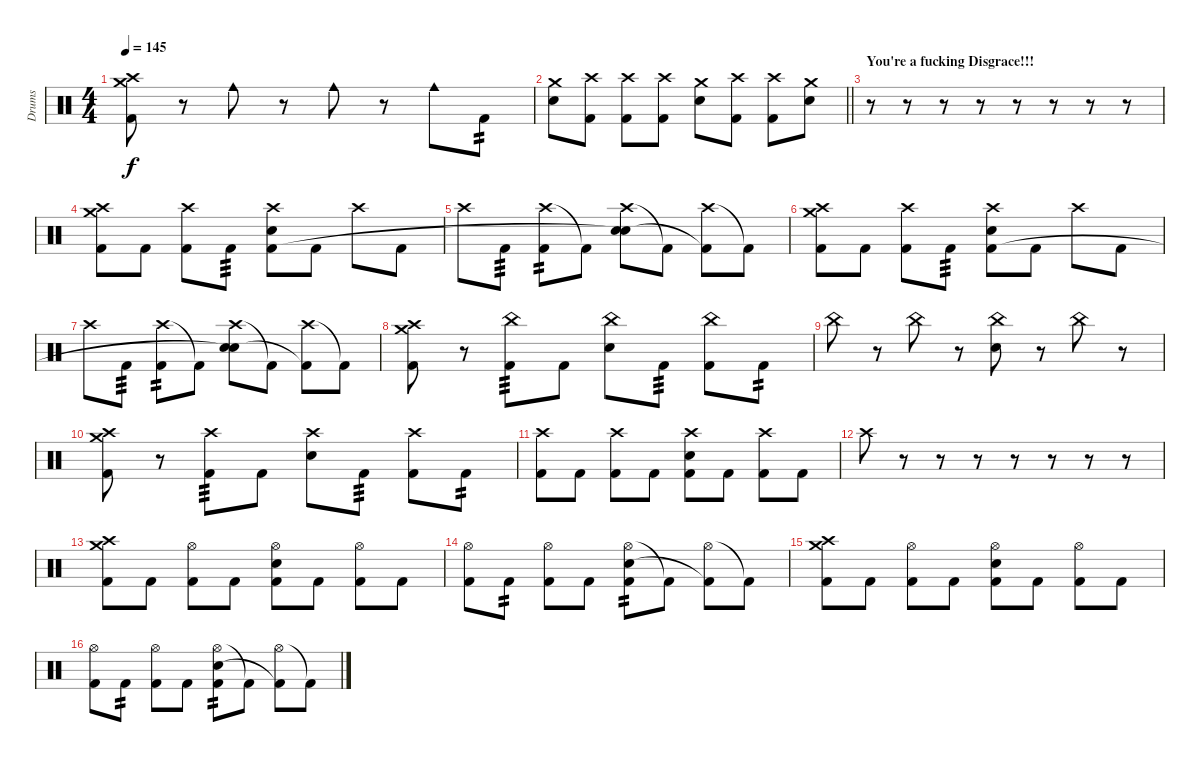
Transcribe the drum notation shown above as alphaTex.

\track ("Drums" "Drums") {instrument percussion}
\staff {score}
\articulation defaults
\ts (4 4)
\tempo 145
\clef neutral
\ks c
("Crash medium (hit)" "Crash high (hit)" "Kick (hit) 2").8{dy f} r.8 "Cowbell medium (hit)".8 r.8 "Cowbell medium (hit)".8 r.8 "Cowbell medium (hit)".8 "Kick (hit) 2".8{tp 2} |
\barLineRight lightlight
("Crash medium (hit)" "Electric Snare (hit)").8 ("Crash high (hit)" "Kick (hit) 2").8 ("Crash high (hit)" "Kick (hit) 2").8 ("Crash high (hit)" "Kick (hit) 2").8 ("Crash medium (hit)" "Electric Snare (hit)").8 ("Crash high (hit)" "Kick (hit) 2").8 ("Crash high (hit)" "Kick (hit) 2").8 ("Crash medium (hit)" "Electric Snare (hit)").8 |
\section ("" "You're a fucking Disgrace!!!")
r.8{volume 0} r.8 r.8 r.8 r.8 r.8 r.8 r.8 |
("Crash medium (hit)" "Crash high (hit)" "Kick (hit) 2").8{volume 13} "Kick (hit) 2".8 ("Crash high (hit)" "Kick (hit) 2").8 "Kick (hit) 2".8{tp 3} ("Crash high (hit)" "Electric Snare (hit)" "Kick (hit) 2").8 "Kick (hit) 2".8 "Crash high (hit)".8 "Kick (hit) 2".8 |
"Crash high (hit)".8 "Kick (hit) 2".8{tp 3} ("Crash high (hit)" "Kick (hit) 2").8{tp 2} "Kick (hit) 2"{t}.8 ("Crash high (hit)" "Electric Snare (hit)" "Snare (hit)"{t}).8 "Kick (hit) 2"{t}.8 ("Crash high (hit)" "Kick (hit) 2"{t}).8 "Kick (hit) 2"{t}.8 |
("Crash medium (hit)" "Crash high (hit)" "Kick (hit) 2").8 "Kick (hit) 2".8 ("Crash high (hit)" "Kick (hit) 2").8 "Kick (hit) 2".8{tp 3} ("Crash high (hit)" "Electric Snare (hit)" "Kick (hit) 2").8 "Kick (hit) 2".8 "Crash high (hit)".8 "Kick (hit) 2".8 |
"Crash high (hit)".8 "Kick (hit) 2".8{tp 3} ("Crash high (hit)" "Kick (hit) 2").8{tp 2} "Kick (hit) 2"{t}.8 ("Crash high (hit)" "Electric Snare (hit)" "Snare (hit)"{t}).8 "Kick (hit) 2"{t}.8 ("Crash high (hit)" "Kick (hit) 2"{t}).8 "Kick (hit) 2"{t}.8 |
("Crash medium (hit)" "Crash high (hit)" "Kick (hit) 2").8 r.8 ("China (hit)" "Kick (hit) 2").8{tp 3} "Kick (hit) 2".8 ("China (hit)" "Electric Snare (hit)").8 "Kick (hit) 2".8{tp 3} ("China (hit)" "Kick (hit) 2").8 "Kick (hit) 2".8{tp 2} |
"China (hit)".8 r.8 "China (hit)".8 r.8 ("China (hit)" "Electric Snare (hit)").8 r.8 "China (hit)".8 r.8 |
("Crash medium (hit)" "Crash high (hit)" "Kick (hit) 2").8 r.8 ("Crash high (hit)" "Kick (hit) 2").8{tp 3} "Kick (hit) 2".8 ("Crash high (hit)" "Electric Snare (hit)").8 "Kick (hit) 2".8{tp 3} ("Crash high (hit)" "Kick (hit) 2").8 "Kick (hit) 2".8{tp 2} |
("Crash high (hit)" "Kick (hit) 2").8 "Kick (hit) 2".8 ("Crash high (hit)" "Kick (hit) 2").8 "Kick (hit) 2".8 ("Crash high (hit)" "Electric Snare (hit)" "Kick (hit) 2").8 "Kick (hit) 2".8 ("Crash high (hit)" "Kick (hit) 2").8 "Kick (hit) 2".8 |
"Crash high (hit)".8 r.8{volume 0} r.8 r.8 r.8 r.8 r.8 r.8 |
("Crash medium (hit)" "Crash high (hit)" "Kick (hit) 2").8{volume 13} "Kick (hit) 2".8 ("Hi-Hat (open)" "Kick (hit) 2").8 "Kick (hit) 2".8 ("Hi-Hat (open)" "Electric Snare (hit)" "Kick (hit) 2").8 "Kick (hit) 2".8 ("Hi-Hat (open)" "Kick (hit) 2").8 "Kick (hit) 2".8 |
("Hi-Hat (open)" "Kick (hit) 2").8 "Kick (hit) 2".8{tp 2} ("Hi-Hat (open)" "Kick (hit) 2").8 "Kick (hit) 2".8 ("Hi-Hat (open)" "Electric Snare (hit)" "Kick (hit) 2").8{tp 2} "Kick (hit) 2"{t}.8 ("Hi-Hat (open)" "Kick (hit) 2"{t}).8 "Kick (hit) 2"{t}.8 |
("Crash medium (hit)" "Crash high (hit)" "Kick (hit) 2").8 "Kick (hit) 2".8 ("Hi-Hat (open)" "Kick (hit) 2").8 "Kick (hit) 2".8 ("Hi-Hat (open)" "Electric Snare (hit)" "Kick (hit) 2").8 "Kick (hit) 2".8 ("Hi-Hat (open)" "Kick (hit) 2").8 "Kick (hit) 2".8 |
("Hi-Hat (open)" "Kick (hit) 2").8 "Kick (hit) 2".8{tp 2} ("Hi-Hat (open)" "Kick (hit) 2").8 "Kick (hit) 2".8 ("Hi-Hat (open)" "Electric Snare (hit)" "Kick (hit) 2").8{tp 2} "Kick (hit) 2"{t}.8 ("Hi-Hat (open)" "Kick (hit) 2"{t}).8 "Kick (hit) 2"{t}.8
